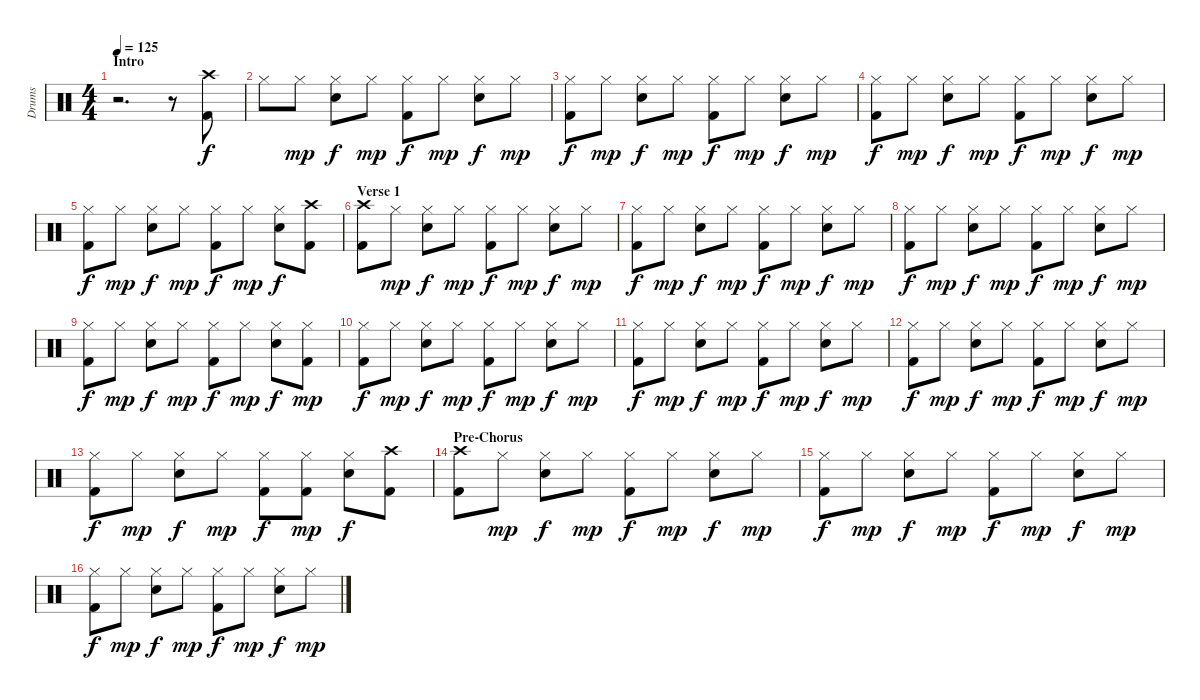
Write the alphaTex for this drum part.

\track ("Drums" "Drums") {instrument percussion}
\staff {score}
\articulation defaults
\ts (4 4)
\section ("" "Intro")
\tempo 125
\clef neutral
\ks c
r.2{d dy f} r.8 ("Crash high (hit)" "Kick (hit) 2").8 |
"Hi-Hat (closed)".8 "Hi-Hat (closed)".8{dy mp} ("Hi-Hat (closed)" "Snare (hit) 2").8{dy f} "Hi-Hat (closed)".8{dy mp} ("Hi-Hat (closed)" "Kick (hit) 2").8{dy f} "Hi-Hat (closed)".8{dy mp} ("Hi-Hat (closed)" "Snare (hit) 2").8{dy f} "Hi-Hat (closed)".8{dy mp} |
("Hi-Hat (closed)" "Kick (hit) 2").8{dy f} "Hi-Hat (closed)".8{dy mp} ("Hi-Hat (closed)" "Snare (hit) 2").8{dy f} "Hi-Hat (closed)".8{dy mp} ("Hi-Hat (closed)" "Kick (hit) 2").8{dy f} "Hi-Hat (closed)".8{dy mp} ("Hi-Hat (closed)" "Snare (hit) 2").8{dy f} "Hi-Hat (closed)".8{dy mp} |
("Hi-Hat (closed)" "Kick (hit) 2").8{dy f} "Hi-Hat (closed)".8{dy mp} ("Hi-Hat (closed)" "Snare (hit) 2").8{dy f} "Hi-Hat (closed)".8{dy mp} ("Hi-Hat (closed)" "Kick (hit) 2").8{dy f} "Hi-Hat (closed)".8{dy mp} ("Hi-Hat (closed)" "Snare (hit) 2").8{dy f} "Hi-Hat (closed)".8{dy mp} |
("Hi-Hat (closed)" "Kick (hit) 2").8{dy f} "Hi-Hat (closed)".8{dy mp} ("Hi-Hat (closed)" "Snare (hit) 2").8{dy f} "Hi-Hat (closed)".8{dy mp} ("Hi-Hat (closed)" "Kick (hit) 2").8{dy f} "Hi-Hat (closed)".8{dy mp} ("Hi-Hat (closed)" "Snare (hit) 2").8{dy f} ("Crash high (hit)" "Kick (hit) 2").8 |
\section ("" "Verse 1")
("Crash high (hit)" "Kick (hit) 2").8 "Hi-Hat (closed)".8{dy mp} ("Hi-Hat (closed)" "Snare (hit) 2").8{dy f} "Hi-Hat (closed)".8{dy mp} ("Hi-Hat (closed)" "Kick (hit) 2").8{dy f} "Hi-Hat (closed)".8{dy mp} ("Hi-Hat (closed)" "Snare (hit) 2").8{dy f} "Hi-Hat (closed)".8{dy mp} |
("Hi-Hat (closed)" "Kick (hit) 2").8{dy f} "Hi-Hat (closed)".8{dy mp} ("Hi-Hat (closed)" "Snare (hit) 2").8{dy f} "Hi-Hat (closed)".8{dy mp} ("Hi-Hat (closed)" "Kick (hit) 2").8{dy f} "Hi-Hat (closed)".8{dy mp} ("Hi-Hat (closed)" "Snare (hit) 2").8{dy f} "Hi-Hat (closed)".8{dy mp} |
("Hi-Hat (closed)" "Kick (hit) 2").8{dy f} "Hi-Hat (closed)".8{dy mp} ("Hi-Hat (closed)" "Snare (hit) 2").8{dy f} "Hi-Hat (closed)".8{dy mp} ("Hi-Hat (closed)" "Kick (hit) 2").8{dy f} "Hi-Hat (closed)".8{dy mp} ("Hi-Hat (closed)" "Snare (hit) 2").8{dy f} "Hi-Hat (closed)".8{dy mp} |
("Hi-Hat (closed)" "Kick (hit) 2").8{dy f} "Hi-Hat (closed)".8{dy mp} ("Hi-Hat (closed)" "Snare (hit) 2").8{dy f} "Hi-Hat (closed)".8{dy mp} ("Hi-Hat (closed)" "Kick (hit) 2").8{dy f} "Hi-Hat (closed)".8{dy mp} ("Hi-Hat (closed)" "Snare (hit) 2").8{dy f} ("Hi-Hat (closed)" "Kick (hit) 2").8{dy mp} |
("Hi-Hat (closed)" "Kick (hit) 2").8{dy f} "Hi-Hat (closed)".8{dy mp} ("Hi-Hat (closed)" "Snare (hit) 2").8{dy f} "Hi-Hat (closed)".8{dy mp} ("Hi-Hat (closed)" "Kick (hit) 2").8{dy f} "Hi-Hat (closed)".8{dy mp} ("Hi-Hat (closed)" "Snare (hit) 2").8{dy f} "Hi-Hat (closed)".8{dy mp} |
("Hi-Hat (closed)" "Kick (hit) 2").8{dy f} "Hi-Hat (closed)".8{dy mp} ("Hi-Hat (closed)" "Snare (hit) 2").8{dy f} "Hi-Hat (closed)".8{dy mp} ("Hi-Hat (closed)" "Kick (hit) 2").8{dy f} "Hi-Hat (closed)".8{dy mp} ("Hi-Hat (closed)" "Snare (hit) 2").8{dy f} "Hi-Hat (closed)".8{dy mp} |
("Hi-Hat (closed)" "Kick (hit) 2").8{dy f} "Hi-Hat (closed)".8{dy mp} ("Hi-Hat (closed)" "Snare (hit) 2").8{dy f} "Hi-Hat (closed)".8{dy mp} ("Hi-Hat (closed)" "Kick (hit) 2").8{dy f} "Hi-Hat (closed)".8{dy mp} ("Hi-Hat (closed)" "Snare (hit) 2").8{dy f} "Hi-Hat (closed)".8{dy mp} |
("Hi-Hat (closed)" "Kick (hit) 2").8{dy f} "Hi-Hat (closed)".8{dy mp} ("Hi-Hat (closed)" "Snare (hit) 2").8{dy f} "Hi-Hat (closed)".8{dy mp} ("Hi-Hat (closed)" "Kick (hit) 2").8{dy f} ("Hi-Hat (closed)" "Kick (hit) 2").8{dy mp} ("Hi-Hat (closed)" "Snare (hit) 2").8{dy f} ("Crash high (hit)" "Kick (hit) 2").8 |
\section ("" "Pre-Chorus")
("Crash high (hit)" "Kick (hit) 2").8 "Hi-Hat (closed)".8{dy mp} ("Hi-Hat (closed)" "Snare (hit) 2").8{dy f} "Hi-Hat (closed)".8{dy mp} ("Hi-Hat (closed)" "Kick (hit) 2").8{dy f} "Hi-Hat (closed)".8{dy mp} ("Hi-Hat (closed)" "Snare (hit) 2").8{dy f} "Hi-Hat (closed)".8{dy mp} |
("Hi-Hat (closed)" "Kick (hit) 2").8{dy f} "Hi-Hat (closed)".8{dy mp} ("Hi-Hat (closed)" "Snare (hit) 2").8{dy f} "Hi-Hat (closed)".8{dy mp} ("Hi-Hat (closed)" "Kick (hit) 2").8{dy f} "Hi-Hat (closed)".8{dy mp} ("Hi-Hat (closed)" "Snare (hit) 2").8{dy f} "Hi-Hat (closed)".8{dy mp} |
("Hi-Hat (closed)" "Kick (hit) 2").8{dy f} "Hi-Hat (closed)".8{dy mp} ("Hi-Hat (closed)" "Snare (hit) 2").8{dy f} "Hi-Hat (closed)".8{dy mp} ("Hi-Hat (closed)" "Kick (hit) 2").8{dy f} "Hi-Hat (closed)".8{dy mp} ("Hi-Hat (closed)" "Snare (hit) 2").8{dy f} "Hi-Hat (closed)".8{dy mp}
